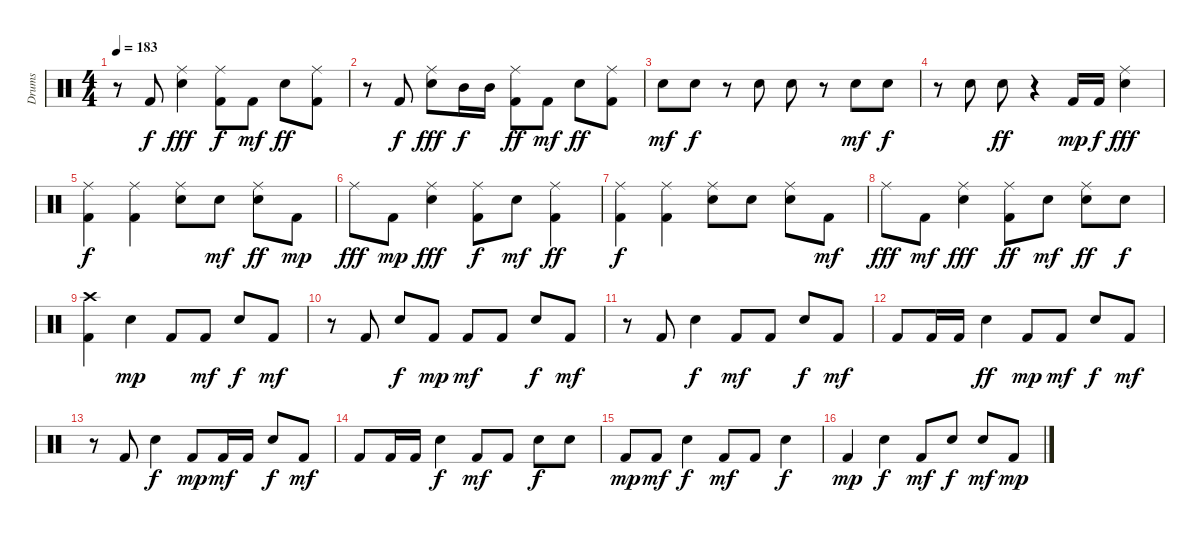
\track ("Drums" "Drums") {instrument percussion}
\staff {score}
\articulation defaults
\ts (4 4)
\tempo 183
\clef neutral
\ks c
r.8{dy ff} "Kick (hit) 2".8{dy f} ("Snare (hit) 2" "Ride (middle)").4{dy fff} ("Kick (hit) 2" "Ride (middle)").8{dy f} "Kick (hit) 2".8{dy mf} "Snare (hit) 2".8{dy ff} ("Kick (hit) 2" "Ride (middle)").8 |
r.8 "Kick (hit) 2".8{dy f} ("Snare (hit) 2" "Ride (middle)").8{dy fff} "Mid Tom (hit)".16{dy f} "Mid Tom (hit)".16 ("Kick (hit) 2" "Ride (middle)").8{dy ff} "Kick (hit) 2".8{dy mf} "Snare (hit) 2".8{dy ff} ("Kick (hit) 2" "Ride (middle)").8 |
"Electric Snare (hit)".8{dy mf} "Electric Snare (hit)".8{dy f} r.8 "Electric Snare (hit)".8 "Electric Snare (hit)".8 r.8 "Electric Snare (hit)".8{dy mf} "Electric Snare (hit)".8{dy f} |
r.8 "Electric Snare (hit)".8 "Electric Snare (hit)".8{dy ff} r.4 "Kick (hit) 2".16{dy mp} "Kick (hit) 2".16{dy f} ("Snare (hit) 2" "Ride (middle)").4{dy fff} |
("Kick (hit) 2" "Ride (middle)").4{dy f} ("Kick (hit) 2" "Ride (middle)").4 ("Snare (hit) 2" "Ride (middle)").8 "Snare (hit) 2".8{dy mf} ("Snare (hit) 2" "Ride (middle)").8{dy ff} "Kick (hit) 2".8{dy mp} |
"Ride (middle)".8{dy fff} "Kick (hit) 2".8{dy mp} ("Snare (hit) 2" "Ride (middle)").4{dy fff} ("Kick (hit) 2" "Ride (middle)").8{dy f} "Snare (hit) 2".8{dy mf} ("Kick (hit) 2" "Ride (middle)").4{dy ff} |
("Kick (hit) 2" "Ride (middle)").4{dy f} ("Kick (hit) 2" "Ride (middle)").4 ("Snare (hit) 2" "Ride (middle)").8 "Snare (hit) 2".8 ("Snare (hit) 2" "Ride (middle)").8 "Kick (hit) 2".8{dy mf} |
"Ride (middle)".8{dy fff} "Kick (hit) 2".8{dy mf} ("Snare (hit) 2" "Ride (middle)").4{dy fff} ("Kick (hit) 2" "Ride (middle)").8{dy ff} "Snare (hit) 2".8{dy mf} ("Snare (hit) 2" "Ride (middle)").8{dy ff} "Snare (hit) 2".8{dy f} |
("Kick (hit) 2" "Crash high (hit)").4 "Snare (hit) 2".4{dy mp} "Kick (hit) 2".8 "Kick (hit) 2".8{dy mf} "Snare (hit) 2".8{dy f} "Kick (hit) 2".8{dy mf} |
r.8 "Kick (hit) 2".8 "Snare (hit) 2".8{dy f} "Kick (hit) 2".8{dy mp} "Kick (hit) 2".8{dy mf} "Kick (hit) 2".8 "Snare (hit) 2".8{dy f} "Kick (hit) 2".8{dy mf} |
r.8 "Kick (hit) 2".8 "Snare (hit) 2".4{dy f} "Kick (hit) 2".8{dy mf} "Kick (hit) 2".8 "Snare (hit) 2".8{dy f} "Kick (hit) 2".8{dy mf} |
"Kick (hit) 2".8 "Kick (hit) 2".16 "Kick (hit) 2".16 "Snare (hit) 2".4{dy ff} "Kick (hit) 2".8{dy mp} "Kick (hit) 2".8{dy mf} "Snare (hit) 2".8{dy f} "Kick (hit) 2".8{dy mf} |
r.8 "Kick (hit) 2".8 "Snare (hit) 2".4{dy f} "Kick (hit) 2".8{dy mp} "Kick (hit) 2".16{dy mf} "Kick (hit) 2".16 "Snare (hit) 2".8{dy f} "Kick (hit) 2".8{dy mf} |
"Kick (hit) 2".8 "Kick (hit) 2".16 "Kick (hit) 2".16 "Snare (hit) 2".4{dy f} "Kick (hit) 2".8{dy mf} "Kick (hit) 2".8 "Snare (hit) 2".8{dy f} "Snare (hit) 2".8 |
"Kick (hit) 2".8{dy mp} "Kick (hit) 2".8{dy mf} "Snare (hit) 2".4{dy f} "Kick (hit) 2".8{dy mf} "Kick (hit) 2".8 "Snare (hit) 2".4{dy f} |
"Kick (hit) 2".4{dy mp} "Snare (hit) 2".4{dy f} "Kick (hit) 2".8{dy mf} "Snare (hit) 2".8{dy f} "Snare (hit) 2".8{dy mf} "Kick (hit) 2".8{dy mp}
